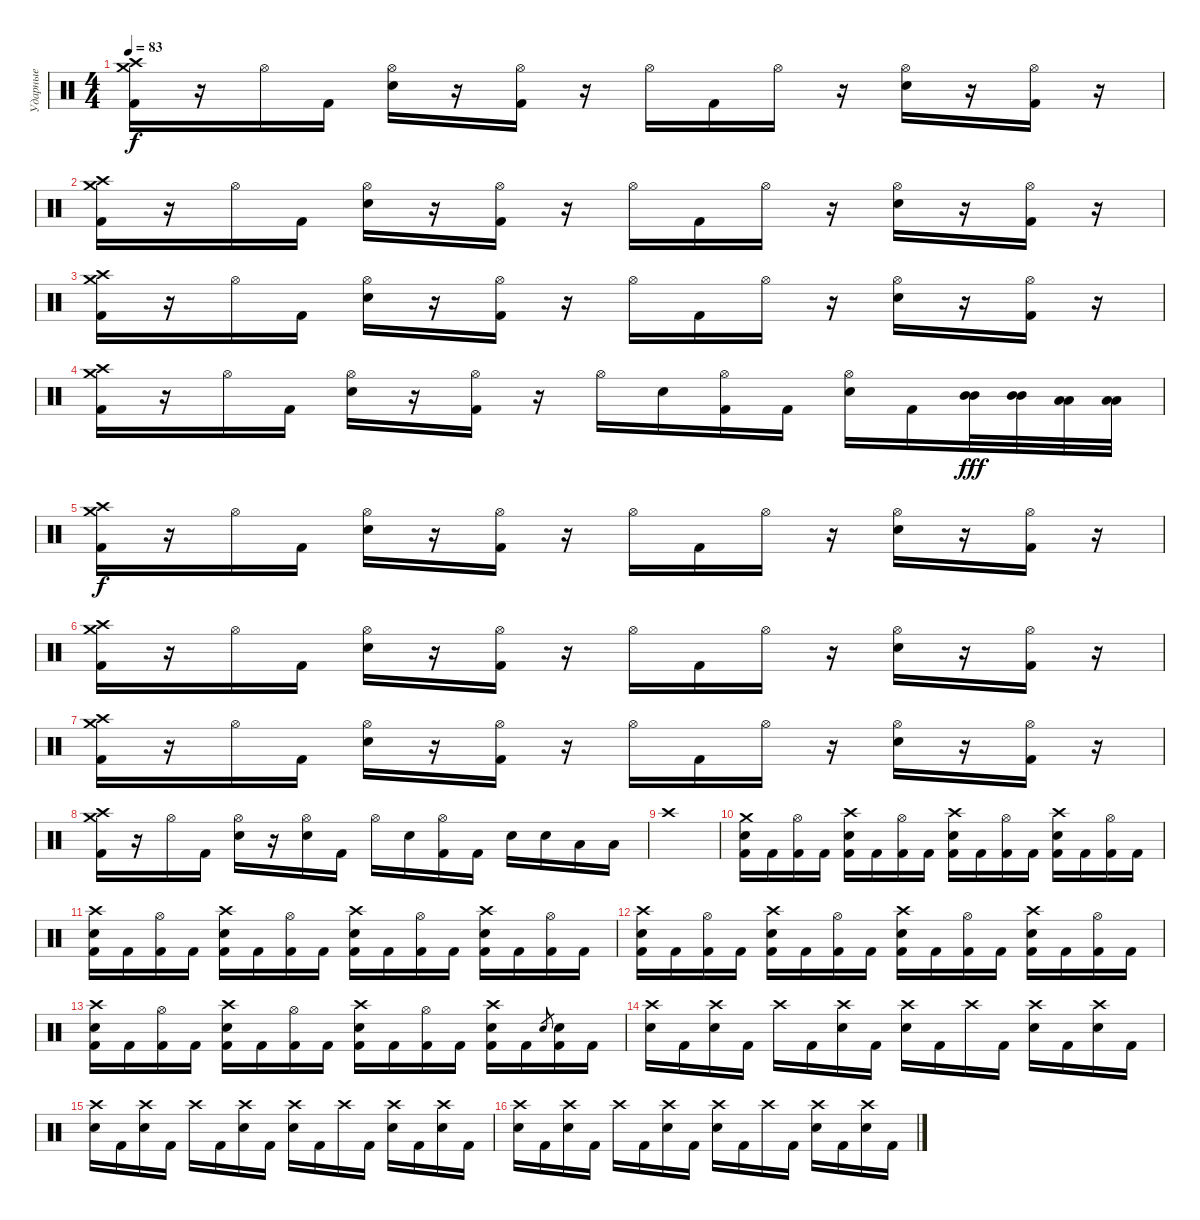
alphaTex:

\track ("Ударные" "Ударные") {instrument percussion}
\staff {score}
\articulation defaults
\ts (4 4)
\tempo 83
\clef neutral
\ks c
("Crash medium (hit)" "Crash high (hit)" "Kick (hit) 2").16{dy f} r.16 "Hi-Hat (open)".16 "Kick (hit) 2".16 ("Hi-Hat (open)" "Electric Snare (hit)").16 r.16 ("Hi-Hat (open)" "Kick (hit) 2").16 r.16 "Hi-Hat (open)".16 "Kick (hit) 2".16 "Hi-Hat (open)".16 r.16 ("Hi-Hat (open)" "Electric Snare (hit)").16 r.16 ("Hi-Hat (open)" "Kick (hit) 2").16 r.16 |
("Crash medium (hit)" "Crash high (hit)" "Kick (hit) 2").16 r.16 "Hi-Hat (open)".16 "Kick (hit) 2".16 ("Hi-Hat (open)" "Electric Snare (hit)").16 r.16 ("Hi-Hat (open)" "Kick (hit) 2").16 r.16 "Hi-Hat (open)".16 "Kick (hit) 2".16 "Hi-Hat (open)".16 r.16 ("Hi-Hat (open)" "Electric Snare (hit)").16 r.16 ("Hi-Hat (open)" "Kick (hit) 2").16 r.16 |
("Crash medium (hit)" "Crash high (hit)" "Kick (hit) 2").16 r.16 "Hi-Hat (open)".16 "Kick (hit) 2".16 ("Hi-Hat (open)" "Electric Snare (hit)").16 r.16 ("Hi-Hat (open)" "Kick (hit) 2").16 r.16 "Hi-Hat (open)".16 "Kick (hit) 2".16 "Hi-Hat (open)".16 r.16 ("Hi-Hat (open)" "Electric Snare (hit)").16 r.16 ("Hi-Hat (open)" "Kick (hit) 2").16 r.16 |
("Crash medium (hit)" "Crash high (hit)" "Kick (hit) 2").16 r.16 "Hi-Hat (open)".16 "Kick (hit) 2".16 ("Hi-Hat (open)" "Electric Snare (hit)").16 r.16 ("Hi-Hat (open)" "Kick (hit) 2").16 r.16 "Hi-Hat (open)".16 "Electric Snare (hit)".16 ("Hi-Hat (open)" "Kick (hit) 2").16 "Kick (hit) 2".16 ("Hi-Hat (open)" "Electric Snare (hit)").16 "Kick (hit) 2".16 ("Mid Tom (hit)" "Mid Tom (hit)").32{dy fff} ("Mid Tom (hit)" "Mid Tom (hit)").32 ("Low Tom (hit)" "Low Tom (hit)").32 ("Low Tom (hit)" "Low Tom (hit)").32 |
("Crash medium (hit)" "Crash high (hit)" "Kick (hit) 2").16{dy f} r.16 "Hi-Hat (open)".16 "Kick (hit) 2".16 ("Hi-Hat (open)" "Electric Snare (hit)").16 r.16 ("Hi-Hat (open)" "Kick (hit) 2").16 r.16 "Hi-Hat (open)".16 "Kick (hit) 2".16 "Hi-Hat (open)".16 r.16 ("Hi-Hat (open)" "Electric Snare (hit)").16 r.16 ("Hi-Hat (open)" "Kick (hit) 2").16 r.16 |
("Crash medium (hit)" "Crash high (hit)" "Kick (hit) 2").16 r.16 "Hi-Hat (open)".16 "Kick (hit) 2".16 ("Hi-Hat (open)" "Electric Snare (hit)").16 r.16 ("Hi-Hat (open)" "Kick (hit) 2").16 r.16 "Hi-Hat (open)".16 "Kick (hit) 2".16 "Hi-Hat (open)".16 r.16 ("Hi-Hat (open)" "Electric Snare (hit)").16 r.16 ("Hi-Hat (open)" "Kick (hit) 2").16 r.16 |
("Crash medium (hit)" "Crash high (hit)" "Kick (hit) 2").16 r.16 "Hi-Hat (open)".16 "Kick (hit) 2".16 ("Hi-Hat (open)" "Electric Snare (hit)").16 r.16 ("Hi-Hat (open)" "Kick (hit) 2").16 r.16 "Hi-Hat (open)".16 "Kick (hit) 2".16 "Hi-Hat (open)".16 r.16 ("Hi-Hat (open)" "Electric Snare (hit)").16 r.16 ("Hi-Hat (open)" "Kick (hit) 2").16 r.16 |
("Crash medium (hit)" "Crash high (hit)" "Kick (hit) 2").16 r.16 "Hi-Hat (open)".16 "Kick (hit) 2".16 ("Hi-Hat (open)" "Electric Snare (hit)").16 r.16 ("Hi-Hat (open)" "Electric Snare (hit)").16 "Kick (hit) 2".16 "Hi-Hat (open)".16 "Electric Snare (hit)".16 ("Hi-Hat (open)" "Kick (hit) 2").16 "Kick (hit) 2".16 "Electric Snare (hit)".16 "Electric Snare (hit)".16 "Low Tom (hit)".16 "Low Tom (hit)".16 |
"Crash high (hit)".1 |
("Crash medium (hit)" "Electric Snare (hit)" "Kick (hit) 2").16 "Kick (hit) 2".16 ("Hi-Hat (open)" "Kick (hit) 2").16 "Kick (hit) 2".16 ("Crash high (hit)" "Electric Snare (hit)" "Kick (hit) 2").16 "Kick (hit) 2".16 ("Hi-Hat (open)" "Kick (hit) 2").16 "Kick (hit) 2".16 ("Crash high (hit)" "Electric Snare (hit)" "Kick (hit) 2").16 "Kick (hit) 2".16 ("Hi-Hat (open)" "Kick (hit) 2").16 "Kick (hit) 2".16 ("Crash high (hit)" "Electric Snare (hit)" "Kick (hit) 2").16 "Kick (hit) 2".16 ("Hi-Hat (open)" "Kick (hit) 2").16 "Kick (hit) 2".16 |
("Crash high (hit)" "Electric Snare (hit)" "Kick (hit) 2").16 "Kick (hit) 2".16 ("Hi-Hat (open)" "Kick (hit) 2").16 "Kick (hit) 2".16 ("Crash high (hit)" "Electric Snare (hit)" "Kick (hit) 2").16 "Kick (hit) 2".16 ("Hi-Hat (open)" "Kick (hit) 2").16 "Kick (hit) 2".16 ("Crash high (hit)" "Electric Snare (hit)" "Kick (hit) 2").16 "Kick (hit) 2".16 ("Hi-Hat (open)" "Kick (hit) 2").16 "Kick (hit) 2".16 ("Crash high (hit)" "Electric Snare (hit)" "Kick (hit) 2").16 "Kick (hit) 2".16 ("Hi-Hat (open)" "Kick (hit) 2").16 "Kick (hit) 2".16 |
("Crash high (hit)" "Electric Snare (hit)" "Kick (hit) 2").16 "Kick (hit) 2".16 ("Hi-Hat (open)" "Kick (hit) 2").16 "Kick (hit) 2".16 ("Crash high (hit)" "Electric Snare (hit)" "Kick (hit) 2").16 "Kick (hit) 2".16 ("Hi-Hat (open)" "Kick (hit) 2").16 "Kick (hit) 2".16 ("Crash high (hit)" "Electric Snare (hit)" "Kick (hit) 2").16 "Kick (hit) 2".16 ("Hi-Hat (open)" "Kick (hit) 2").16 "Kick (hit) 2".16 ("Crash high (hit)" "Electric Snare (hit)" "Kick (hit) 2").16 "Kick (hit) 2".16 ("Hi-Hat (open)" "Kick (hit) 2").16 "Kick (hit) 2".16 |
("Crash high (hit)" "Electric Snare (hit)" "Kick (hit) 2").16 "Kick (hit) 2".16 ("Hi-Hat (open)" "Kick (hit) 2").16 "Kick (hit) 2".16 ("Crash high (hit)" "Electric Snare (hit)" "Kick (hit) 2").16 "Kick (hit) 2".16 ("Hi-Hat (open)" "Kick (hit) 2").16 "Kick (hit) 2".16 ("Crash high (hit)" "Electric Snare (hit)" "Kick (hit) 2").16 "Kick (hit) 2".16 ("Hi-Hat (open)" "Kick (hit) 2").16 "Kick (hit) 2".16 ("Crash high (hit)" "Electric Snare (hit)" "Kick (hit) 2").16 "Kick (hit) 2".16 "Electric Snare (hit)".8{gr} ("Electric Snare (hit)" "Kick (hit) 2").16 "Kick (hit) 2".16 |
("Crash high (hit)" "Electric Snare (hit)").16 "Kick (hit) 2".16 ("Crash high (hit)" "Electric Snare (hit)").16 "Kick (hit) 2".16 "Crash high (hit)".16 "Kick (hit) 2".16 ("Crash high (hit)" "Electric Snare (hit)").16 "Kick (hit) 2".16 ("Crash high (hit)" "Electric Snare (hit)").16 "Kick (hit) 2".16 "Crash high (hit)".16 "Kick (hit) 2".16 ("Crash high (hit)" "Electric Snare (hit)").16 "Kick (hit) 2".16 ("Crash high (hit)" "Electric Snare (hit)").16 "Kick (hit) 2".16 |
("Crash high (hit)" "Electric Snare (hit)").16 "Kick (hit) 2".16 ("Crash high (hit)" "Electric Snare (hit)").16 "Kick (hit) 2".16 "Crash high (hit)".16 "Kick (hit) 2".16 ("Crash high (hit)" "Electric Snare (hit)").16 "Kick (hit) 2".16 ("Crash high (hit)" "Electric Snare (hit)").16 "Kick (hit) 2".16 "Crash high (hit)".16 "Kick (hit) 2".16 ("Crash high (hit)" "Electric Snare (hit)").16 "Kick (hit) 2".16 ("Crash high (hit)" "Electric Snare (hit)").16 "Kick (hit) 2".16 |
("Crash high (hit)" "Electric Snare (hit)").16 "Kick (hit) 2".16 ("Crash high (hit)" "Electric Snare (hit)").16 "Kick (hit) 2".16 "Crash high (hit)".16 "Kick (hit) 2".16 ("Crash high (hit)" "Electric Snare (hit)").16 "Kick (hit) 2".16 ("Crash high (hit)" "Electric Snare (hit)").16 "Kick (hit) 2".16 "Crash high (hit)".16 "Kick (hit) 2".16 ("Crash high (hit)" "Electric Snare (hit)").16 "Kick (hit) 2".16 ("Crash high (hit)" "Electric Snare (hit)").16 "Kick (hit) 2".16
